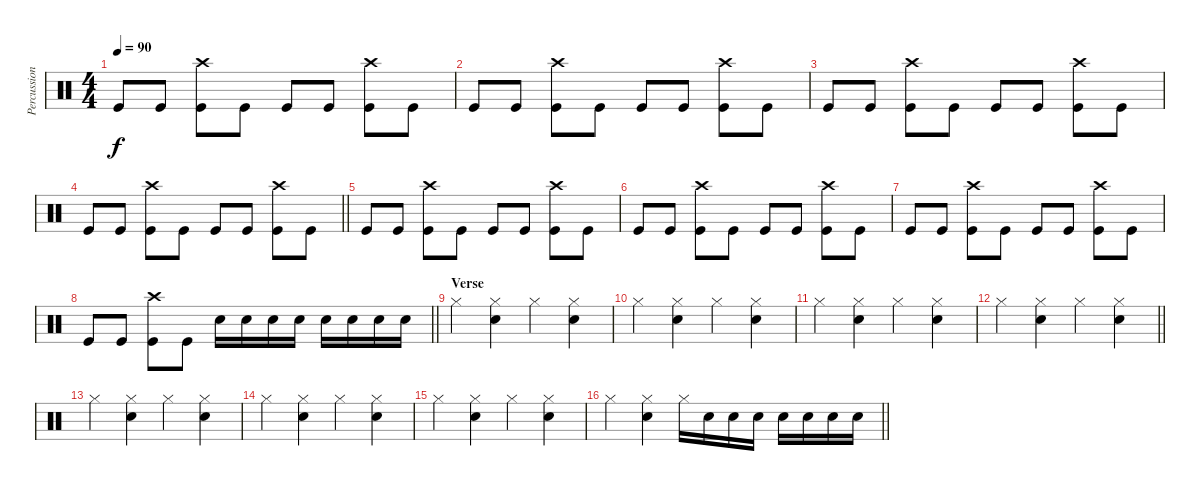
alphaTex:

\track ("Percussion" "Percussion") {instrument percussion}
\staff {score}
\articulation defaults
\ts (4 4)
\tempo 90
\clef neutral
\ks c "Kick (hit)".8{dy f} "Kick (hit)".8
("Kick (hit)" "Crash high (hit)").8 "Kick (hit)".8 "Kick (hit)".8 "Kick (hit)".8 ("Kick (hit)" "Crash high (hit)").8 "Kick (hit)".8 |
"Kick (hit)".8 "Kick (hit)".8 ("Kick (hit)" "Crash high (hit)").8 "Kick (hit)".8 "Kick (hit)".8 "Kick (hit)".8 ("Kick (hit)" "Crash high (hit)").8 "Kick (hit)".8 |
"Kick (hit)".8 "Kick (hit)".8 ("Kick (hit)" "Crash high (hit)").8 "Kick (hit)".8 "Kick (hit)".8 "Kick (hit)".8 ("Kick (hit)" "Crash high (hit)").8 "Kick (hit)".8 |
\barLineRight lightlight "Kick (hit)".8 "Kick (hit)".8
("Kick (hit)" "Crash high (hit)").8 "Kick (hit)".8 "Kick (hit)".8 "Kick (hit)".8 ("Kick (hit)" "Crash high (hit)").8 "Kick (hit)".8 |
"Kick (hit)".8 "Kick (hit)".8 ("Kick (hit)" "Crash high (hit)").8 "Kick (hit)".8 "Kick (hit)".8 "Kick (hit)".8 ("Kick (hit)" "Crash high (hit)").8 "Kick (hit)".8 |
"Kick (hit)".8 "Kick (hit)".8 ("Kick (hit)" "Crash high (hit)").8 "Kick (hit)".8 "Kick (hit)".8 "Kick (hit)".8 ("Kick (hit)" "Crash high (hit)").8 "Kick (hit)".8 |
"Kick (hit)".8 "Kick (hit)".8 ("Kick (hit)" "Crash high (hit)").8 "Kick (hit)".8 "Kick (hit)".8 "Kick (hit)".8 ("Kick (hit)" "Crash high (hit)").8 "Kick (hit)".8 |
\barLineRight lightlight "Kick (hit)".8 "Kick (hit)".8
("Kick (hit)" "Crash high (hit)").8 "Kick (hit)".8 "Snare (hit) 2".16 "Electric Snare (hit)".16 "Snare (hit) 2".16 "Electric Snare (hit)".16 "Snare (hit) 2".16 "Electric Snare (hit)".16 "Snare (hit) 2".16 "Electric Snare (hit)".16 |
\section ("" "Verse")
"Hi-Hat (closed)".4 ("Hi-Hat (closed)" "Snare (hit) 2").4 "Hi-Hat (closed)".4 ("Hi-Hat (closed)" "Snare (hit) 2").4 |
"Hi-Hat (closed)".4 ("Hi-Hat (closed)" "Snare (hit) 2").4 "Hi-Hat (closed)".4 ("Hi-Hat (closed)" "Snare (hit) 2").4 |
"Hi-Hat (closed)".4 ("Hi-Hat (closed)" "Snare (hit) 2").4 "Hi-Hat (closed)".4 ("Hi-Hat (closed)" "Snare (hit) 2").4 |
\barLineRight lightlight "Hi-Hat (closed)".4
("Hi-Hat (closed)" "Snare (hit) 2").4 "Hi-Hat (closed)".4 ("Hi-Hat (closed)" "Snare (hit) 2").4 |
"Hi-Hat (closed)".4 ("Hi-Hat (closed)" "Snare (hit) 2").4 "Hi-Hat (closed)".4 ("Hi-Hat (closed)" "Snare (hit) 2").4 |
"Hi-Hat (closed)".4 ("Hi-Hat (closed)" "Snare (hit) 2").4 "Hi-Hat (closed)".4 ("Hi-Hat (closed)" "Snare (hit) 2").4 |
"Hi-Hat (closed)".4 ("Hi-Hat (closed)" "Snare (hit) 2").4 "Hi-Hat (closed)".4 ("Hi-Hat (closed)" "Snare (hit) 2").4 |
\barLineRight lightlight "Hi-Hat (closed)".4
("Hi-Hat (closed)" "Snare (hit) 2").4 "Hi-Hat (closed)".16 "Snare (hit) 2".16 "Electric Snare (hit)".16 "Snare (hit) 2".16 "Snare (hit) 2".16 "Electric Snare (hit)".16 "Snare (hit) 2".16 "Electric Snare (hit)".16
